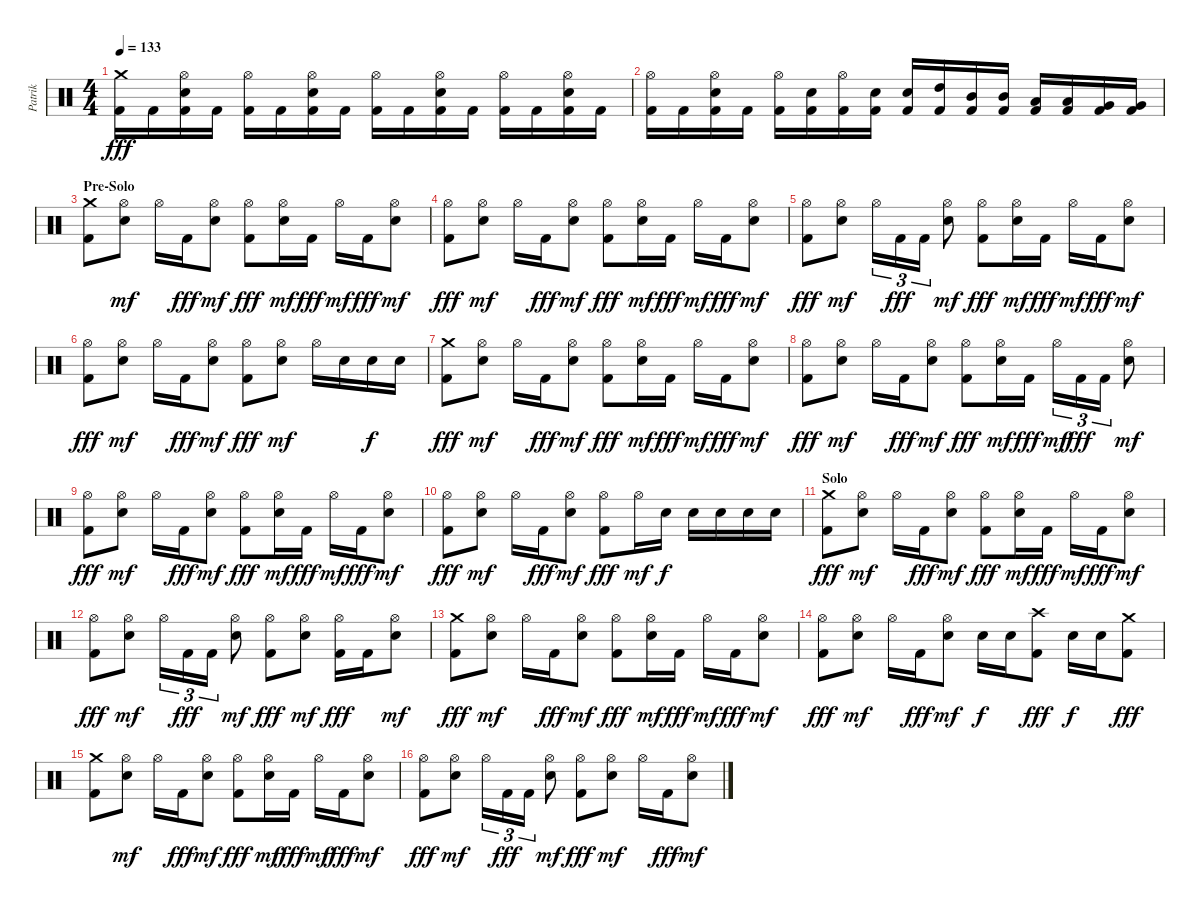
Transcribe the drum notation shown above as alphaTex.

\track ("Patrik" "Patrik") {instrument percussion}
\staff {score}
\articulation defaults
\ts (4 4)
\tempo 133
\clef neutral
\ks c
("Crash medium (hit)" "Kick (hit) 2").16{dy fff} "Kick (hit) 2".16 ("Hi-Hat (open)" "Electric Snare (hit)" "Kick (hit) 2").16 "Kick (hit) 2".16 ("Hi-Hat (open)" "Kick (hit) 2").16 "Kick (hit) 2".16 ("Hi-Hat (open)" "Electric Snare (hit)" "Kick (hit) 2").16 "Kick (hit) 2".16 ("Hi-Hat (open)" "Kick (hit) 2").16 "Kick (hit) 2".16 ("Hi-Hat (open)" "Electric Snare (hit)" "Kick (hit) 2").16 "Kick (hit) 2".16 ("Hi-Hat (open)" "Kick (hit) 2").16 "Kick (hit) 2".16 ("Hi-Hat (open)" "Electric Snare (hit)" "Kick (hit) 2").16 "Kick (hit) 2".16 |
("Hi-Hat (open)" "Kick (hit) 2").16 "Kick (hit) 2".16 ("Hi-Hat (open)" "Electric Snare (hit)" "Kick (hit) 2").16 "Kick (hit) 2".16 ("Hi-Hat (open)" "Kick (hit) 2").16 ("Electric Snare (hit)" "Kick (hit) 2").16 ("Hi-Hat (open)" "Kick (hit) 2").16 ("Electric Snare (hit)" "Kick (hit) 2").16 ("Electric Snare (hit)" "Kick (hit) 2").16 ("High Tom (hit)" "Kick (hit) 2").16 ("Mid Tom (hit)" "Kick (hit) 2").16 ("Mid Tom (hit)" "Kick (hit) 2").16 ("Low Tom (hit)" "Kick (hit) 2").16 ("Low Tom (hit)" "Kick (hit) 2").16 ("Very Low Tom (hit)" "Kick (hit) 2").16 ("Very Low Tom (hit)" "Kick (hit) 2").16 |
\section ("" "Pre-Solo")
("Crash medium (hit)" "Kick (hit) 2").8 ("Hi-Hat (open)" "Electric Snare (hit)").8{dy mf} "Hi-Hat (open)".16 "Kick (hit) 2".16{dy fff} ("Hi-Hat (open)" "Electric Snare (hit)").8{dy mf} ("Hi-Hat (open)" "Kick (hit) 2").8{dy fff} ("Hi-Hat (open)" "Electric Snare (hit)").16{dy mf} "Kick (hit) 2".16{dy fff} "Hi-Hat (open)".16{dy mf} "Kick (hit) 2".16{dy fff} ("Hi-Hat (open)" "Electric Snare (hit)").8{dy mf} |
("Hi-Hat (open)" "Kick (hit) 2").8{dy fff} ("Hi-Hat (open)" "Electric Snare (hit)").8{dy mf} "Hi-Hat (open)".16 "Kick (hit) 2".16{dy fff} ("Hi-Hat (open)" "Electric Snare (hit)").8{dy mf} ("Hi-Hat (open)" "Kick (hit) 2").8{dy fff} ("Hi-Hat (open)" "Electric Snare (hit)").16{dy mf} "Kick (hit) 2".16{dy fff} "Hi-Hat (open)".16{dy mf} "Kick (hit) 2".16{dy fff} ("Hi-Hat (open)" "Electric Snare (hit)").8{dy mf} |
("Hi-Hat (open)" "Kick (hit) 2").8{dy fff} ("Hi-Hat (open)" "Electric Snare (hit)").8{dy mf} "Hi-Hat (open)".16{tu (3 2)} "Kick (hit) 2".16{tu (3 2) dy fff} "Kick (hit) 2".16{tu (3 2)} ("Hi-Hat (open)" "Electric Snare (hit)").8{dy mf} ("Hi-Hat (open)" "Kick (hit) 2").8{dy fff} ("Hi-Hat (open)" "Electric Snare (hit)").16{dy mf} "Kick (hit) 2".16{dy fff} "Hi-Hat (open)".16{dy mf} "Kick (hit) 2".16{dy fff} ("Hi-Hat (open)" "Electric Snare (hit)").8{dy mf} |
("Hi-Hat (open)" "Kick (hit) 2").8{dy fff} ("Hi-Hat (open)" "Electric Snare (hit)").8{dy mf} "Hi-Hat (open)".16 "Kick (hit) 2".16{dy fff} ("Hi-Hat (open)" "Electric Snare (hit)").8{dy mf} ("Hi-Hat (open)" "Kick (hit) 2").8{dy fff} ("Hi-Hat (open)" "Electric Snare (hit)").8{dy mf} "Hi-Hat (open)".16 "Electric Snare (hit)".16 "Electric Snare (hit)".16{dy f} "Electric Snare (hit)".16 |
("Crash medium (hit)" "Kick (hit) 2").8{dy fff} ("Hi-Hat (open)" "Electric Snare (hit)").8{dy mf} "Hi-Hat (open)".16 "Kick (hit) 2".16{dy fff} ("Hi-Hat (open)" "Electric Snare (hit)").8{dy mf} ("Hi-Hat (open)" "Kick (hit) 2").8{dy fff} ("Hi-Hat (open)" "Electric Snare (hit)").16{dy mf} "Kick (hit) 2".16{dy fff} "Hi-Hat (open)".16{dy mf} "Kick (hit) 2".16{dy fff} ("Hi-Hat (open)" "Electric Snare (hit)").8{dy mf} |
("Hi-Hat (open)" "Kick (hit) 2").8{dy fff} ("Hi-Hat (open)" "Electric Snare (hit)").8{dy mf} "Hi-Hat (open)".16 "Kick (hit) 2".16{dy fff} ("Hi-Hat (open)" "Electric Snare (hit)").8{dy mf} ("Hi-Hat (open)" "Kick (hit) 2").8{dy fff} ("Hi-Hat (open)" "Electric Snare (hit)").16{dy mf} "Kick (hit) 2".16{dy fff} "Hi-Hat (open)".16{tu (3 2) dy mf} "Kick (hit) 2".16{tu (3 2) dy fff} "Kick (hit) 2".16{tu (3 2)} ("Hi-Hat (open)" "Electric Snare (hit)").8{dy mf} |
("Hi-Hat (open)" "Kick (hit) 2").8{dy fff} ("Hi-Hat (open)" "Electric Snare (hit)").8{dy mf} "Hi-Hat (open)".16 "Kick (hit) 2".16{dy fff} ("Hi-Hat (open)" "Electric Snare (hit)").8{dy mf} ("Hi-Hat (open)" "Kick (hit) 2").8{dy fff} ("Hi-Hat (open)" "Electric Snare (hit)").16{dy mf} "Kick (hit) 2".16{dy fff} "Hi-Hat (open)".16{dy mf} "Kick (hit) 2".16{dy fff} ("Hi-Hat (open)" "Electric Snare (hit)").8{dy mf} |
("Hi-Hat (open)" "Kick (hit) 2").8{dy fff} ("Hi-Hat (open)" "Electric Snare (hit)").8{dy mf} "Hi-Hat (open)".16 "Kick (hit) 2".16{dy fff} ("Hi-Hat (open)" "Electric Snare (hit)").8{dy mf} ("Hi-Hat (open)" "Kick (hit) 2").8{dy fff} "Hi-Hat (open)".16{dy mf} "Electric Snare (hit)".16{dy f} "Electric Snare (hit)".16 "Electric Snare (hit)".16 "Electric Snare (hit)".16 "Electric Snare (hit)".16 |
\section ("" "Solo")
("Crash medium (hit)" "Kick (hit) 2").8{dy fff} ("Hi-Hat (open)" "Electric Snare (hit)").8{dy mf} "Hi-Hat (open)".16 "Kick (hit) 2".16{dy fff} ("Hi-Hat (open)" "Electric Snare (hit)").8{dy mf} ("Hi-Hat (open)" "Kick (hit) 2").8{dy fff} ("Hi-Hat (open)" "Electric Snare (hit)").16{dy mf} "Kick (hit) 2".16{dy fff} "Hi-Hat (open)".16{dy mf} "Kick (hit) 2".16{dy fff} ("Hi-Hat (open)" "Electric Snare (hit)").8{dy mf} |
("Hi-Hat (open)" "Kick (hit) 2").8{dy fff} ("Hi-Hat (open)" "Electric Snare (hit)").8{dy mf} "Hi-Hat (open)".16{tu (3 2)} "Kick (hit) 2".16{tu (3 2) dy fff} "Kick (hit) 2".16{tu (3 2)} ("Hi-Hat (open)" "Electric Snare (hit)").8{dy mf} ("Hi-Hat (open)" "Kick (hit) 2").8{dy fff} ("Hi-Hat (open)" "Electric Snare (hit)").8{dy mf} ("Hi-Hat (open)" "Kick (hit) 2").16{dy fff} "Kick (hit) 2".16 ("Hi-Hat (open)" "Electric Snare (hit)").8{dy mf} |
("Crash medium (hit)" "Kick (hit) 2").8{dy fff} ("Hi-Hat (open)" "Electric Snare (hit)").8{dy mf} "Hi-Hat (open)".16 "Kick (hit) 2".16{dy fff} ("Hi-Hat (open)" "Electric Snare (hit)").8{dy mf} ("Hi-Hat (open)" "Kick (hit) 2").8{dy fff} ("Hi-Hat (open)" "Electric Snare (hit)").16{dy mf} "Kick (hit) 2".16{dy fff} "Hi-Hat (open)".16{dy mf} "Kick (hit) 2".16{dy fff} ("Hi-Hat (open)" "Electric Snare (hit)").8{dy mf} |
("Hi-Hat (open)" "Kick (hit) 2").8{dy fff} ("Hi-Hat (open)" "Electric Snare (hit)").8{dy mf} "Hi-Hat (open)".16 "Kick (hit) 2".16{dy fff} ("Hi-Hat (open)" "Electric Snare (hit)").8{dy mf} "Electric Snare (hit)".16{dy f} "Electric Snare (hit)".16 ("Crash high (hit)" "Kick (hit) 2").8{dy fff} "Electric Snare (hit)".16{dy f} "Electric Snare (hit)".16 ("Crash medium (hit)" "Kick (hit) 2").8{dy fff} |
("Crash medium (hit)" "Kick (hit) 2").8 ("Hi-Hat (open)" "Electric Snare (hit)").8{dy mf} "Hi-Hat (open)".16 "Kick (hit) 2".16{dy fff} ("Hi-Hat (open)" "Electric Snare (hit)").8{dy mf} ("Hi-Hat (open)" "Kick (hit) 2").8{dy fff} ("Hi-Hat (open)" "Electric Snare (hit)").16{dy mf} "Kick (hit) 2".16{dy fff} "Hi-Hat (open)".16{dy mf} "Kick (hit) 2".16{dy fff} ("Hi-Hat (open)" "Electric Snare (hit)").8{dy mf} |
("Hi-Hat (open)" "Kick (hit) 2").8{dy fff} ("Hi-Hat (open)" "Electric Snare (hit)").8{dy mf} "Hi-Hat (open)".16{tu (3 2)} "Kick (hit) 2".16{tu (3 2) dy fff} "Kick (hit) 2".16{tu (3 2)} ("Hi-Hat (open)" "Electric Snare (hit)").8{dy mf} ("Hi-Hat (open)" "Kick (hit) 2").8{dy fff} ("Hi-Hat (open)" "Electric Snare (hit)").8{dy mf} "Hi-Hat (open)".16 "Kick (hit) 2".16{dy fff} ("Hi-Hat (open)" "Electric Snare (hit)").8{dy mf}
